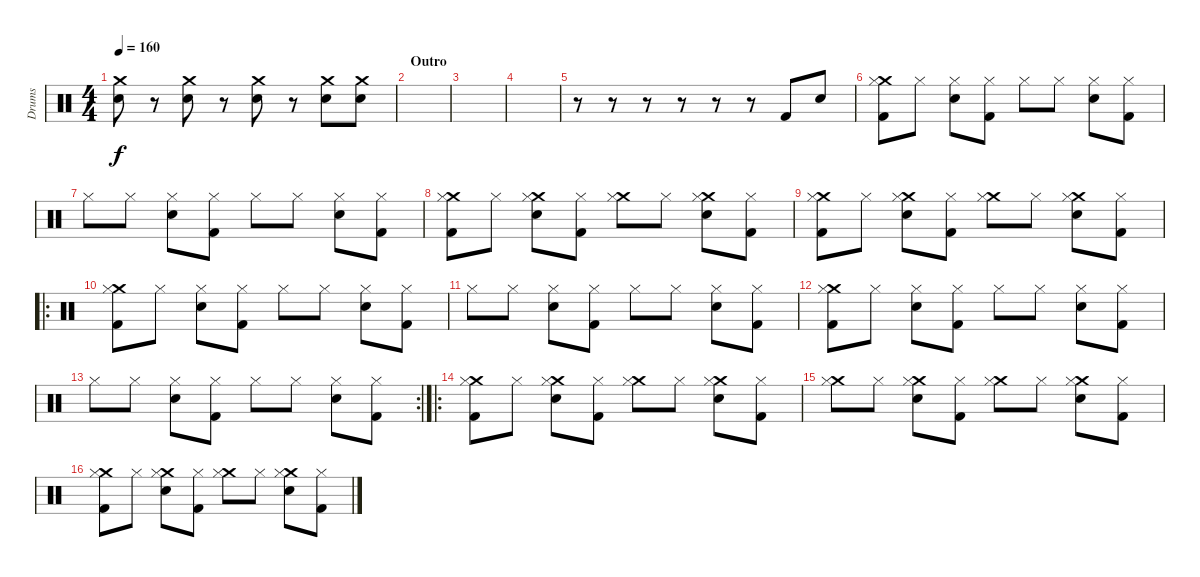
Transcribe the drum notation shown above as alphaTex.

\track ("Drums" "Drums") {instrument percussion}
\staff {score}
\articulation defaults
\ts (4 4)
\tempo 160
\clef neutral
\ks c
("Crash medium (hit)" "Snare (hit) 2").8{dy f} r.8 ("Crash medium (hit)" "Snare (hit) 2").8 r.8 ("Crash medium (hit)" "Snare (hit) 2").8 r.8 ("Crash medium (hit)" "Snare (hit) 2").8 ("Crash medium (hit)" "Snare (hit) 2").8 |
\section ("" "Outro")
|
|
|
r.8 r.8 r.8 r.8 r.8 r.8 "Kick (hit) 2".8 "Snare (hit) 2".8 |
("Crash medium (hit)" "Hi-Hat (closed)" "Kick (hit) 2").8 "Hi-Hat (closed)".8 ("Hi-Hat (closed)" "Snare (hit) 2").8 ("Hi-Hat (closed)" "Kick (hit) 2").8 "Hi-Hat (closed)".8 "Hi-Hat (closed)".8 ("Hi-Hat (closed)" "Snare (hit) 2").8 ("Hi-Hat (closed)" "Kick (hit) 2").8 |
"Hi-Hat (closed)".8 "Hi-Hat (closed)".8 ("Hi-Hat (closed)" "Snare (hit) 2").8 ("Hi-Hat (closed)" "Kick (hit) 2").8 "Hi-Hat (closed)".8 "Hi-Hat (closed)".8 ("Hi-Hat (closed)" "Snare (hit) 2").8 ("Hi-Hat (closed)" "Kick (hit) 2").8 |
("Crash medium (hit)" "Hi-Hat (closed)" "Kick (hit) 2").8 "Hi-Hat (closed)".8 ("Crash medium (hit)" "Hi-Hat (closed)" "Snare (hit) 2").8 ("Hi-Hat (closed)" "Kick (hit) 2").8 ("Crash medium (hit)" "Hi-Hat (closed)").8 "Hi-Hat (closed)".8 ("Crash medium (hit)" "Hi-Hat (closed)" "Snare (hit) 2").8 ("Hi-Hat (closed)" "Kick (hit) 2").8 |
("Crash medium (hit)" "Hi-Hat (closed)" "Kick (hit) 2").8 "Hi-Hat (closed)".8 ("Crash medium (hit)" "Hi-Hat (closed)" "Snare (hit) 2").8 ("Hi-Hat (closed)" "Kick (hit) 2").8 ("Crash medium (hit)" "Hi-Hat (closed)").8 "Hi-Hat (closed)".8 ("Crash medium (hit)" "Hi-Hat (closed)" "Snare (hit) 2").8 ("Hi-Hat (closed)" "Kick (hit) 2").8 |
\ro
("Crash medium (hit)" "Hi-Hat (closed)" "Kick (hit) 2").8 "Hi-Hat (closed)".8 ("Hi-Hat (closed)" "Snare (hit) 2").8 ("Hi-Hat (closed)" "Kick (hit) 2").8 "Hi-Hat (closed)".8 "Hi-Hat (closed)".8 ("Hi-Hat (closed)" "Snare (hit) 2").8 ("Hi-Hat (closed)" "Kick (hit) 2").8 |
"Hi-Hat (closed)".8 "Hi-Hat (closed)".8 ("Hi-Hat (closed)" "Snare (hit) 2").8 ("Hi-Hat (closed)" "Kick (hit) 2").8 "Hi-Hat (closed)".8 "Hi-Hat (closed)".8 ("Hi-Hat (closed)" "Snare (hit) 2").8 ("Hi-Hat (closed)" "Kick (hit) 2").8 |
("Crash medium (hit)" "Hi-Hat (closed)" "Kick (hit) 2").8 "Hi-Hat (closed)".8 ("Hi-Hat (closed)" "Snare (hit) 2").8 ("Hi-Hat (closed)" "Kick (hit) 2").8 "Hi-Hat (closed)".8 "Hi-Hat (closed)".8 ("Hi-Hat (closed)" "Snare (hit) 2").8 ("Hi-Hat (closed)" "Kick (hit) 2").8 |
\rc 2 "Hi-Hat (closed)".8 "Hi-Hat (closed)".8
("Hi-Hat (closed)" "Snare (hit) 2").8 ("Hi-Hat (closed)" "Kick (hit) 2").8 "Hi-Hat (closed)".8 "Hi-Hat (closed)".8 ("Hi-Hat (closed)" "Snare (hit) 2").8 ("Hi-Hat (closed)" "Kick (hit) 2").8 |
\ro
("Crash medium (hit)" "Hi-Hat (closed)" "Kick (hit) 2").8 "Hi-Hat (closed)".8 ("Crash medium (hit)" "Hi-Hat (closed)" "Snare (hit) 2").8 ("Hi-Hat (closed)" "Kick (hit) 2").8 ("Crash medium (hit)" "Hi-Hat (closed)").8 "Hi-Hat (closed)".8 ("Crash medium (hit)" "Hi-Hat (closed)" "Snare (hit) 2").8 ("Hi-Hat (closed)" "Kick (hit) 2").8 |
("Crash medium (hit)" "Hi-Hat (closed)").8 "Hi-Hat (closed)".8 ("Crash medium (hit)" "Hi-Hat (closed)" "Snare (hit) 2").8 ("Hi-Hat (closed)" "Kick (hit) 2").8 ("Crash medium (hit)" "Hi-Hat (closed)").8 "Hi-Hat (closed)".8 ("Crash medium (hit)" "Hi-Hat (closed)" "Snare (hit) 2").8 ("Hi-Hat (closed)" "Kick (hit) 2").8 |
("Crash medium (hit)" "Hi-Hat (closed)" "Kick (hit) 2").8 "Hi-Hat (closed)".8 ("Crash medium (hit)" "Hi-Hat (closed)" "Snare (hit) 2").8 ("Hi-Hat (closed)" "Kick (hit) 2").8 ("Crash medium (hit)" "Hi-Hat (closed)").8 "Hi-Hat (closed)".8 ("Crash medium (hit)" "Hi-Hat (closed)" "Snare (hit) 2").8 ("Hi-Hat (closed)" "Kick (hit) 2").8
